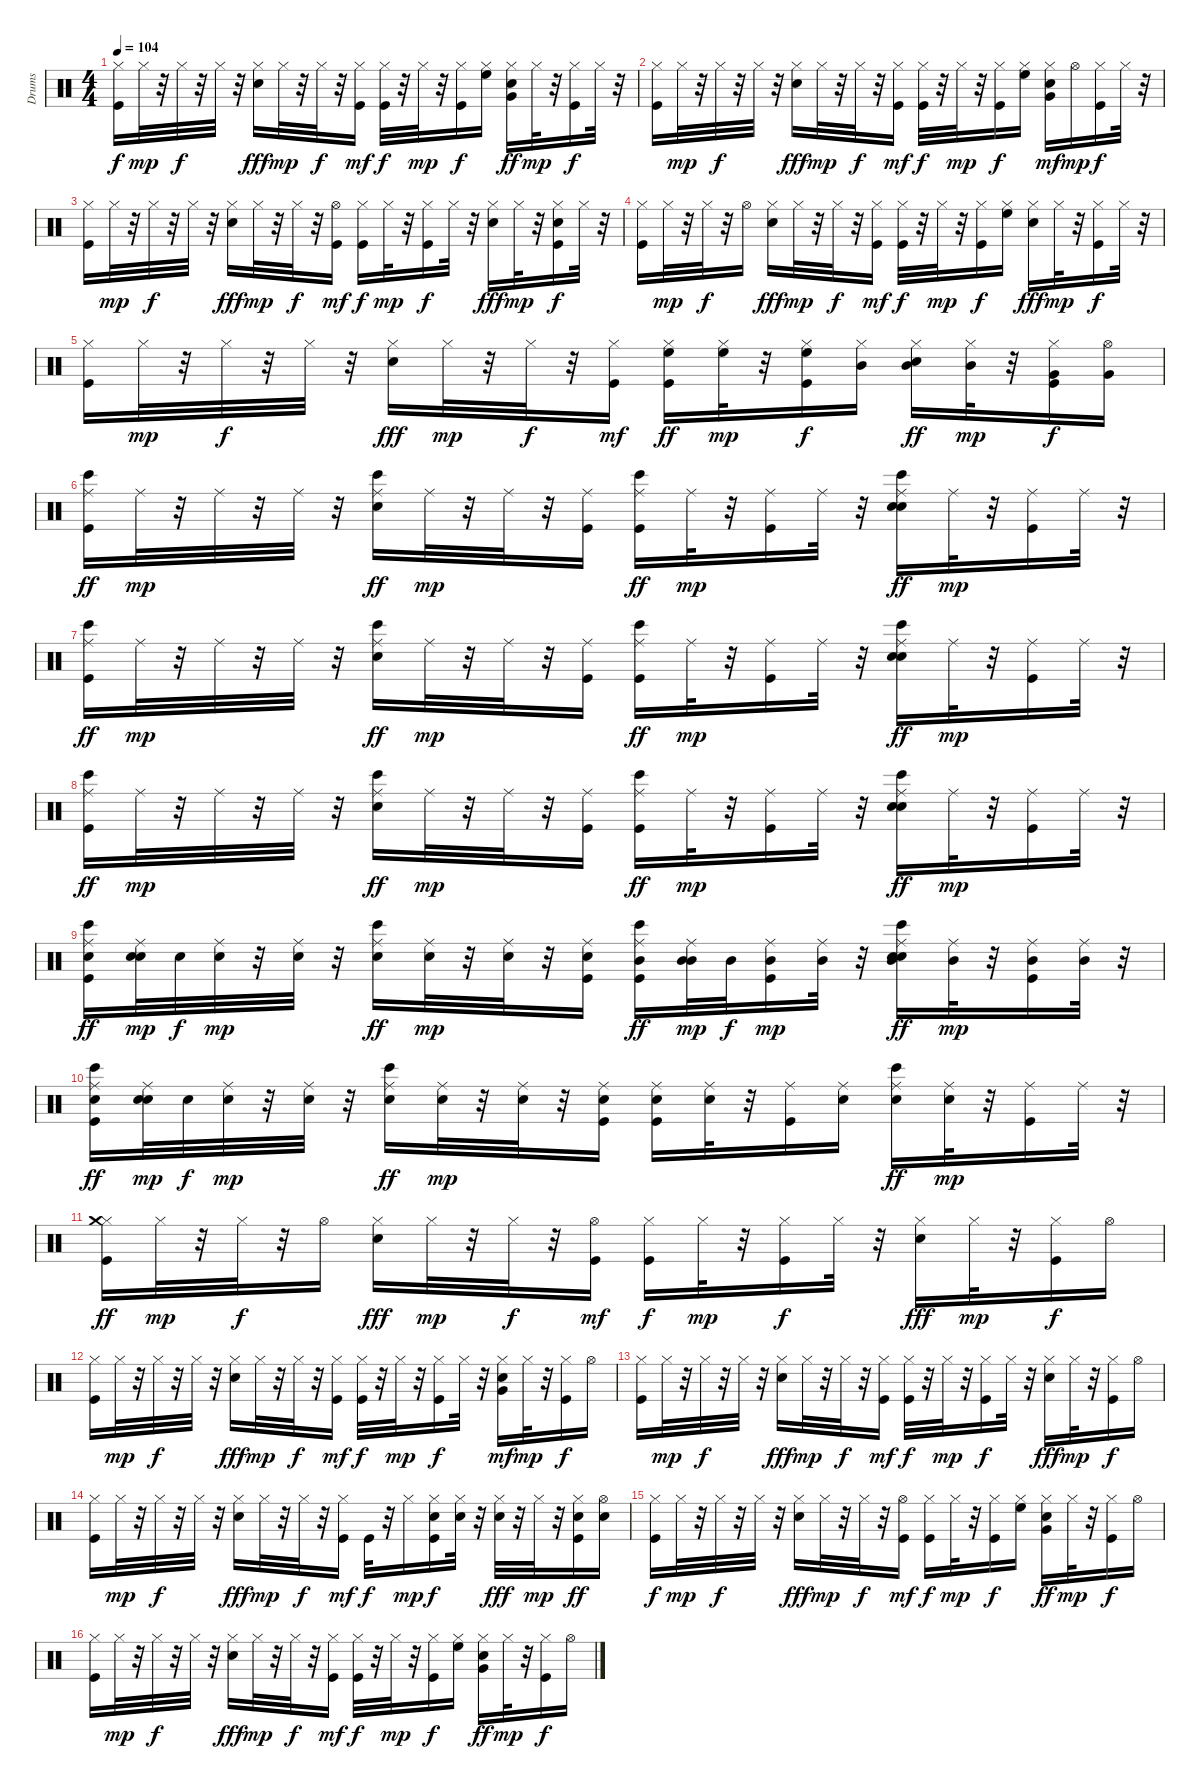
\track ("Drums   " "Drums   ") {instrument percussion}
\staff {score}
\articulation defaults
\ts (4 4)
\tempo 104
\clef neutral
\ks c
("Kick (hit)" "Hi-Hat (closed)").16{dy f} "Hi-Hat (closed)".32{dy mp} r.32 "Hi-Hat (closed)".32{dy f} r.32 "Hi-Hat (closed)".32 r.32 ("Electric Snare (hit)" "Hi-Hat (closed)").16{dy fff} "Hi-Hat (closed)".32{dy mp} r.32 "Hi-Hat (closed)".32{dy f} r.32 ("Kick (hit)" "Hi-Hat (closed)").16{dy mf} ("Kick (hit)" "Hi-Hat (closed)").32{dy f} r.32 "Hi-Hat (closed)".32{dy mp} r.32 ("Kick (hit)" "Hi-Hat (closed)").16{dy f} ("Hi-Hat (closed)" "High Floor Tom (hit)").16 ("Electric Snare (hit)" "Hi-Hat (closed)" "Very Low Tom (hit)").16{dy ff} "Hi-Hat (closed)".32{dy mp} r.32 ("Kick (hit)" "Hi-Hat (closed)").16{dy f} "Hi-Hat (closed)".32 r.32 |
("Kick (hit)" "Hi-Hat (closed)").16 "Hi-Hat (closed)".32{dy mp} r.32 "Hi-Hat (closed)".32{dy f} r.32 "Hi-Hat (closed)".32 r.32 ("Electric Snare (hit)" "Hi-Hat (closed)").16{dy fff} "Hi-Hat (closed)".32{dy mp} r.32 "Hi-Hat (closed)".32{dy f} r.32 ("Kick (hit)" "Hi-Hat (closed)").16{dy mf} ("Kick (hit)" "Hi-Hat (closed)").32{dy f} r.32 "Hi-Hat (closed)".32{dy mp} r.32 ("Kick (hit)" "Hi-Hat (closed)").16{dy f} ("Hi-Hat (closed)" "High Floor Tom (hit)").16 ("Electric Snare (hit)" "Hi-Hat (closed)" "Very Low Tom (hit)").16{dy mf} "Hi-Hat (open)".16{dy mp} ("Kick (hit)" "Hi-Hat (closed)").16{dy f} "Hi-Hat (closed)".32 r.32 |
("Kick (hit)" "Hi-Hat (closed)").16 "Hi-Hat (closed)".32{dy mp} r.32 "Hi-Hat (closed)".32{dy f} r.32 "Hi-Hat (closed)".32 r.32 ("Electric Snare (hit)" "Hi-Hat (closed)").16{dy fff} "Hi-Hat (closed)".32{dy mp} r.32 "Hi-Hat (closed)".32{dy f} r.32 ("Kick (hit)" "Hi-Hat (open)").16{dy mf} ("Kick (hit)" "Hi-Hat (closed)").16{dy f} "Hi-Hat (closed)".32{dy mp} r.32 ("Kick (hit)" "Hi-Hat (closed)").16{dy f} "Hi-Hat (closed)".32 r.32 ("Electric Snare (hit)" "Hi-Hat (closed)").16{dy fff} "Hi-Hat (closed)".32{dy mp} r.32 ("Kick (hit)" "Electric Snare (hit)" "Hi-Hat (closed)").16{dy f} "Hi-Hat (closed)".32 r.32 |
("Kick (hit)" "Hi-Hat (closed)").16 "Hi-Hat (closed)".32{dy mp} r.32 "Hi-Hat (closed)".32{dy f} r.32 "Hi-Hat (open)".16 ("Electric Snare (hit)" "Hi-Hat (closed)").16{dy fff} "Hi-Hat (closed)".32{dy mp} r.32 "Hi-Hat (closed)".32{dy f} r.32 ("Kick (hit)" "Hi-Hat (closed)").16{dy mf} ("Kick (hit)" "Hi-Hat (closed)").32{dy f} r.32 "Hi-Hat (closed)".32{dy mp} r.32 ("Kick (hit)" "Hi-Hat (closed)").16{dy f} ("Hi-Hat (closed)" "High Floor Tom (hit)").16 ("Electric Snare (hit)" "Hi-Hat (closed)").16{dy fff} "Hi-Hat (closed)".32{dy mp} r.32 ("Kick (hit)" "Hi-Hat (closed)").16{dy f} "Hi-Hat (closed)".32 r.32 |
("Kick (hit)" "Hi-Hat (closed)").16 "Hi-Hat (closed)".32{dy mp} r.32 "Hi-Hat (closed)".32{dy f} r.32 "Hi-Hat (closed)".32 r.32 ("Electric Snare (hit)" "Hi-Hat (closed)").16{dy fff} "Hi-Hat (closed)".32{dy mp} r.32 "Hi-Hat (closed)".32{dy f} r.32 ("Kick (hit)" "Hi-Hat (closed)").16{dy mf} ("Kick (hit)" "Hi-Hat (closed)" "High Floor Tom (hit)").16{dy ff} ("Hi-Hat (closed)" "High Floor Tom (hit)").32{dy mp} r.32 ("Kick (hit)" "Hi-Hat (closed)" "High Floor Tom (hit)").16{dy f} ("Hi-Hat (closed)" "Mid Tom (hit)").16 ("Electric Snare (hit)" "Hi-Hat (closed)" "Mid Tom (hit)").16{dy ff} ("Hi-Hat (closed)" "Mid Tom (hit)").32{dy mp} r.32 ("Kick (hit)" "Hi-Hat (closed)" "Very Low Tom (hit)").16{dy f} ("Very Low Tom (hit)" "Hi-Hat (open)").16 |
("Kick (hit)" "Ride (middle)" "Bongo High (hit)").16{dy ff} "Ride (middle)".32{dy mp} r.32 "Ride (middle)".32 r.32 "Ride (middle)".32 r.32 ("Electric Snare (hit)" "Ride (middle)" "Bongo High (hit)").16{dy ff} "Ride (middle)".32{dy mp} r.32 "Ride (middle)".32 r.32 ("Kick (hit)" "Ride (middle)").16 ("Kick (hit)" "Ride (middle)" "Bongo High (hit)").16{dy ff} "Ride (middle)".32{dy mp} r.32 ("Kick (hit)" "Ride (middle)").16 "Ride (middle)".32 r.32 ("Hand Clap (hit)" "Electric Snare (hit)" "Ride (middle)" "Bongo High (hit)").16{dy ff} "Ride (middle)".32{dy mp} r.32 ("Kick (hit)" "Ride (middle)").16 "Ride (middle)".32 r.32 |
("Kick (hit)" "Ride (middle)" "Bongo High (hit)").16{dy ff} "Ride (middle)".32{dy mp} r.32 "Ride (middle)".32 r.32 "Ride (middle)".32 r.32 ("Electric Snare (hit)" "Ride (middle)" "Bongo High (hit)").16{dy ff} "Ride (middle)".32{dy mp} r.32 "Ride (middle)".32 r.32 ("Kick (hit)" "Ride (middle)").16 ("Kick (hit)" "Ride (middle)" "Bongo High (hit)").16{dy ff} "Ride (middle)".32{dy mp} r.32 ("Kick (hit)" "Ride (middle)").16 "Ride (middle)".32 r.32 ("Hand Clap (hit)" "Electric Snare (hit)" "Ride (middle)" "Bongo High (hit)").16{dy ff} "Ride (middle)".32{dy mp} r.32 ("Kick (hit)" "Ride (middle)").16 "Ride (middle)".32 r.32 |
("Kick (hit)" "Ride (middle)" "Bongo High (hit)").16{dy ff} "Ride (middle)".32{dy mp} r.32 "Ride (middle)".32 r.32 "Ride (middle)".32 r.32 ("Electric Snare (hit)" "Ride (middle)" "Bongo High (hit)").16{dy ff} "Ride (middle)".32{dy mp} r.32 "Ride (middle)".32 r.32 ("Kick (hit)" "Ride (middle)").16 ("Kick (hit)" "Ride (middle)" "Bongo High (hit)").16{dy ff} "Ride (middle)".32{dy mp} r.32 ("Kick (hit)" "Ride (middle)").16 "Ride (middle)".32 r.32 ("Hand Clap (hit)" "Electric Snare (hit)" "Ride (middle)" "Bongo High (hit)").16{dy ff} "Ride (middle)".32{dy mp} r.32 ("Kick (hit)" "Ride (middle)").16 "Ride (middle)".32 r.32 |
("Kick (hit)" "Electric Snare (hit)" "Ride (middle)" "Bongo High (hit)").16{dy ff} ("Electric Snare (hit)" "Ride (middle)" "Electric Snare (hit)").32{dy mp} "Electric Snare (hit)".32{dy f} ("Electric Snare (hit)" "Ride (middle)").32{dy mp} r.32 ("Electric Snare (hit)" "Ride (middle)").32 r.32 ("Electric Snare (hit)" "Ride (middle)" "Bongo High (hit)").16{dy ff} ("Electric Snare (hit)" "Ride (middle)").32{dy mp} r.32 ("Electric Snare (hit)" "Ride (middle)").32 r.32 ("Kick (hit)" "Electric Snare (hit)" "Ride (middle)").16 ("Kick (hit)" "Mid Tom (hit)" "Ride (middle)" "Bongo High (hit)").16{dy ff} ("Mid Tom (hit)" "Ride (middle)" "Mid Tom (hit)").32{dy mp} "Mid Tom (hit)".32{dy f} ("Kick (hit)" "Mid Tom (hit)" "Ride (middle)").16{dy mp} ("Mid Tom (hit)" "Ride (middle)").32 r.32 ("Hand Clap (hit)" "Electric Snare (hit)" "Mid Tom (hit)" "Ride (middle)" "Bongo High (hit)").16{dy ff} ("Mid Tom (hit)" "Ride (middle)").32{dy mp} r.32 ("Kick (hit)" "Mid Tom (hit)" "Ride (middle)").16 ("Mid Tom (hit)" "Ride (middle)").32 r.32 |
("Kick (hit)" "Electric Snare (hit)" "Ride (middle)" "Bongo High (hit)").16{dy ff} ("Electric Snare (hit)" "Ride (middle)" "Electric Snare (hit)").32{dy mp} "Electric Snare (hit)".32{dy f} ("Electric Snare (hit)" "Ride (middle)").32{dy mp} r.32 ("Electric Snare (hit)" "Ride (middle)").32 r.32 ("Electric Snare (hit)" "Ride (middle)" "Bongo High (hit)").16{dy ff} ("Electric Snare (hit)" "Ride (middle)").32{dy mp} r.32 ("Electric Snare (hit)" "Ride (middle)").32 r.32 ("Kick (hit)" "Electric Snare (hit)" "Ride (middle)").16 ("Kick (hit)" "Electric Snare (hit)" "Ride (middle)").16 ("Electric Snare (hit)" "Ride (middle)").32 r.32 ("Kick (hit)" "Ride (middle)").16 ("Electric Snare (hit)" "Ride (middle)").16 ("Electric Snare (hit)" "Ride (middle)" "Bongo High (hit)").16{dy ff} ("Electric Snare (hit)" "Ride (middle)").32{dy mp} r.32 ("Kick (hit)" "Ride (middle)").16 "Ride (middle)".32 r.32 |
("Kick (hit)" "Hi-Hat (closed)" "Crash medium (hit)").16{dy ff} "Hi-Hat (closed)".32{dy mp} r.32 "Hi-Hat (closed)".32{dy f} r.32 "Hi-Hat (open)".16 ("Electric Snare (hit)" "Hi-Hat (closed)").16{dy fff} "Hi-Hat (closed)".32{dy mp} r.32 "Hi-Hat (closed)".32{dy f} r.32 ("Kick (hit)" "Hi-Hat (open)").16{dy mf} ("Kick (hit)" "Hi-Hat (closed)").16{dy f} "Hi-Hat (closed)".32{dy mp} r.32 ("Kick (hit)" "Hi-Hat (closed)").16{dy f} "Hi-Hat (closed)".32 r.32 ("Electric Snare (hit)" "Hi-Hat (closed)").16{dy fff} "Hi-Hat (closed)".32{dy mp} r.32 ("Kick (hit)" "Hi-Hat (closed)").16{dy f} "Hi-Hat (open)".16 |
("Kick (hit)" "Hi-Hat (closed)").16 "Hi-Hat (closed)".32{dy mp} r.32 "Hi-Hat (closed)".32{dy f} r.32 "Hi-Hat (closed)".32 r.32 ("Electric Snare (hit)" "Hi-Hat (closed)").16{dy fff} "Hi-Hat (closed)".32{dy mp} r.32 "Hi-Hat (closed)".32{dy f} r.32 ("Kick (hit)" "Hi-Hat (closed)").16{dy mf} ("Kick (hit)" "Hi-Hat (closed)").32{dy f} r.32 "Hi-Hat (closed)".32{dy mp} r.32 ("Kick (hit)" "Hi-Hat (closed)").16{dy f} "Hi-Hat (closed)".32 r.32 ("Electric Snare (hit)" "Hi-Hat (closed)" "Very Low Tom (hit)").16{dy mf} "Hi-Hat (closed)".32{dy mp} r.32 ("Kick (hit)" "Hi-Hat (closed)").16{dy f} "Hi-Hat (open)".16 |
("Kick (hit)" "Hi-Hat (closed)").16 "Hi-Hat (closed)".32{dy mp} r.32 "Hi-Hat (closed)".32{dy f} r.32 "Hi-Hat (closed)".32 r.32 ("Electric Snare (hit)" "Hi-Hat (closed)").16{dy fff} "Hi-Hat (closed)".32{dy mp} r.32 "Hi-Hat (closed)".32{dy f} r.32 ("Kick (hit)" "Hi-Hat (closed)").16{dy mf} ("Kick (hit)" "Hi-Hat (closed)").32{dy f} r.32 "Hi-Hat (closed)".32{dy mp} r.32 ("Kick (hit)" "Hi-Hat (closed)").16{dy f} "Hi-Hat (closed)".32 r.32 ("Electric Snare (hit)" "Hi-Hat (closed)").16{dy fff} "Hi-Hat (closed)".32{dy mp} r.32 ("Kick (hit)" "Hi-Hat (closed)").16{dy f} "Hi-Hat (open)".16 |
("Kick (hit)" "Hi-Hat (closed)").16 "Hi-Hat (closed)".32{dy mp} r.32 "Hi-Hat (closed)".32{dy f} r.32 "Hi-Hat (closed)".32 r.32 ("Electric Snare (hit)" "Hi-Hat (closed)").16{dy fff} "Hi-Hat (closed)".32{dy mp} r.32 "Hi-Hat (closed)".32{dy f} r.32 ("Kick (hit)" "Hi-Hat (closed)").16{dy mf} "Kick (hit)".32{dy f} r.32 "Hi-Hat (closed)".16{dy mp} ("Kick (hit)" "Electric Snare (hit)" "Hi-Hat (closed)").16{dy f} ("Electric Snare (hit)" "Hi-Hat (closed)").32 r.32 ("Electric Snare (hit)" "Hi-Hat (closed)").32{dy fff} r.32 "Hi-Hat (closed)".32{dy mp} r.32 ("Kick (hit)" "Electric Snare (hit)" "Hi-Hat (closed)").16{dy ff} ("Electric Snare (hit)" "Hi-Hat (open)").16 |
("Kick (hit)" "Hi-Hat (closed)").16{dy f} "Hi-Hat (closed)".32{dy mp} r.32 "Hi-Hat (closed)".32{dy f} r.32 "Hi-Hat (closed)".32 r.32 ("Electric Snare (hit)" "Hi-Hat (closed)").16{dy fff} "Hi-Hat (closed)".32{dy mp} r.32 "Hi-Hat (closed)".32{dy f} r.32 ("Kick (hit)" "Hi-Hat (open)").16{dy mf} ("Kick (hit)" "Hi-Hat (closed)").16{dy f} "Hi-Hat (closed)".32{dy mp} r.32 ("Kick (hit)" "Hi-Hat (closed)").16{dy f} ("Hi-Hat (closed)" "High Floor Tom (hit)").16 ("Electric Snare (hit)" "Hi-Hat (closed)" "Very Low Tom (hit)").16{dy ff} "Hi-Hat (closed)".32{dy mp} r.32 ("Kick (hit)" "Hi-Hat (closed)").16{dy f} "Hi-Hat (open)".16 |
("Kick (hit)" "Hi-Hat (closed)").16 "Hi-Hat (closed)".32{dy mp} r.32 "Hi-Hat (closed)".32{dy f} r.32 "Hi-Hat (closed)".32 r.32 ("Electric Snare (hit)" "Hi-Hat (closed)").16{dy fff} "Hi-Hat (closed)".32{dy mp} r.32 "Hi-Hat (closed)".32{dy f} r.32 ("Kick (hit)" "Hi-Hat (closed)").16{dy mf} ("Kick (hit)" "Hi-Hat (closed)").32{dy f} r.32 "Hi-Hat (closed)".32{dy mp} r.32 ("Kick (hit)" "Hi-Hat (closed)").16{dy f} ("Hi-Hat (closed)" "High Floor Tom (hit)").16 ("Electric Snare (hit)" "Hi-Hat (closed)" "Very Low Tom (hit)").16{dy ff} "Hi-Hat (closed)".32{dy mp} r.32 ("Kick (hit)" "Hi-Hat (closed)").16{dy f} "Hi-Hat (open)".16
